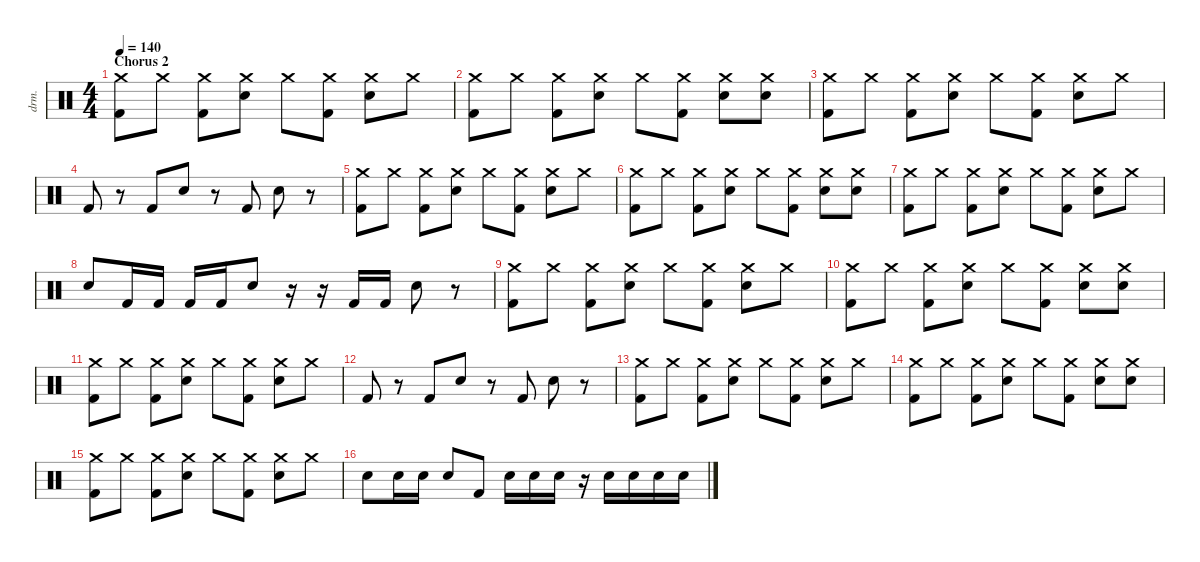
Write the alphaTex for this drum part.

\defaultSystemsLayout 4
\hideDynamics
\bracketExtendMode nobrackets
\otherSystemsTrackNameOrientation horizontal
\track ("Drumkit" "drm.") {instrument percussion}
\staff {score}
\articulation defaults
\ts (4 4)
\section ("" "Chorus 2")
\tempo 140
\clef neutral
\ks c
("Crash medium (hit)" "Kick (hit) 2").8{dy mf beam Down} "Crash medium (hit)".8{beam Down} ("Crash medium (hit)" "Kick (hit) 2").8{beam Down} ("Snare (hit) 2" "Crash medium (hit)").8{beam Down} "Crash medium (hit)".8{beam Down} ("Crash medium (hit)" "Kick (hit) 2").8{beam Down} ("Crash medium (hit)" "Snare (hit) 2").8{beam Down} "Crash medium (hit)".8{beam Down} |
("Crash medium (hit)" "Kick (hit) 2").8{beam Down} "Crash medium (hit)".8{beam Down} ("Crash medium (hit)" "Kick (hit) 2").8{beam Down} ("Snare (hit) 2" "Crash medium (hit)").8{beam Down} "Crash medium (hit)".8{beam Down} ("Crash medium (hit)" "Kick (hit) 2").8{beam Down} ("Crash medium (hit)" "Snare (hit) 2").8{beam Down} ("Crash medium (hit)" "Snare (hit) 2").8{beam Down} |
("Crash medium (hit)" "Kick (hit) 2").8{beam Down} "Crash medium (hit)".8{beam Down} ("Crash medium (hit)" "Kick (hit) 2").8{beam Down} ("Snare (hit) 2" "Crash medium (hit)").8{beam Down} "Crash medium (hit)".8{beam Down} ("Crash medium (hit)" "Kick (hit) 2").8{beam Down} ("Crash medium (hit)" "Snare (hit) 2").8{beam Down} "Crash medium (hit)".8{beam Down} |
"Kick (hit) 2".8{beam Up} r.8{beam Up} "Kick (hit) 2".8{beam Up} "Snare (hit) 2".8{beam Up} r.8{beam Up} "Kick (hit) 2".8{beam Up} "Snare (hit) 2".8{beam Down} r.8{beam Down} |
("Crash medium (hit)" "Kick (hit) 2").8{beam Down} "Crash medium (hit)".8{beam Down} ("Crash medium (hit)" "Kick (hit) 2").8{beam Down} ("Snare (hit) 2" "Crash medium (hit)").8{beam Down} "Crash medium (hit)".8{beam Down} ("Crash medium (hit)" "Kick (hit) 2").8{beam Down} ("Crash medium (hit)" "Snare (hit) 2").8{beam Down} "Crash medium (hit)".8{beam Down} |
("Crash medium (hit)" "Kick (hit) 2").8{beam Down} "Crash medium (hit)".8{beam Down} ("Crash medium (hit)" "Kick (hit) 2").8{beam Down} ("Snare (hit) 2" "Crash medium (hit)").8{beam Down} "Crash medium (hit)".8{beam Down} ("Crash medium (hit)" "Kick (hit) 2").8{beam Down} ("Crash medium (hit)" "Snare (hit) 2").8{beam Down} ("Crash medium (hit)" "Snare (hit) 2").8{beam Down} |
("Crash medium (hit)" "Kick (hit) 2").8{beam Down} "Crash medium (hit)".8{beam Down} ("Crash medium (hit)" "Kick (hit) 2").8{beam Down} ("Snare (hit) 2" "Crash medium (hit)").8{beam Down} "Crash medium (hit)".8{beam Down} ("Crash medium (hit)" "Kick (hit) 2").8{beam Down} ("Crash medium (hit)" "Snare (hit) 2").8{beam Down} "Crash medium (hit)".8{beam Down} |
"Snare (hit) 2".8{beam Up} "Kick (hit) 2".16{beam Up} "Kick (hit) 2".16{beam Up} "Kick (hit) 2".16{beam Up} "Kick (hit) 2".16{beam Up} "Snare (hit) 2".8{beam Up} r.16{beam Up} r.16{beam Up} "Kick (hit) 2".16{dy f beam Up} "Kick (hit) 2".16{beam Up} "Snare (hit) 2".8{dy mf beam Down} r.8{beam Down} |
("Crash medium (hit)" "Kick (hit) 2").8{beam Down} "Crash medium (hit)".8{beam Down} ("Crash medium (hit)" "Kick (hit) 2").8{beam Down} ("Snare (hit) 2" "Crash medium (hit)").8{beam Down} "Crash medium (hit)".8{beam Down} ("Crash medium (hit)" "Kick (hit) 2").8{beam Down} ("Crash medium (hit)" "Snare (hit) 2").8{beam Down} "Crash medium (hit)".8{beam Down} |
("Crash medium (hit)" "Kick (hit) 2").8{beam Down} "Crash medium (hit)".8{beam Down} ("Crash medium (hit)" "Kick (hit) 2").8{beam Down} ("Snare (hit) 2" "Crash medium (hit)").8{beam Down} "Crash medium (hit)".8{beam Down} ("Crash medium (hit)" "Kick (hit) 2").8{beam Down} ("Crash medium (hit)" "Snare (hit) 2").8{beam Down} ("Crash medium (hit)" "Snare (hit) 2").8{beam Down} |
("Crash medium (hit)" "Kick (hit) 2").8{beam Down} "Crash medium (hit)".8{beam Down} ("Crash medium (hit)" "Kick (hit) 2").8{beam Down} ("Snare (hit) 2" "Crash medium (hit)").8{beam Down} "Crash medium (hit)".8{beam Down} ("Crash medium (hit)" "Kick (hit) 2").8{beam Down} ("Crash medium (hit)" "Snare (hit) 2").8{beam Down} "Crash medium (hit)".8{beam Down} |
"Kick (hit) 2".8{beam Up} r.8{beam Up} "Kick (hit) 2".8{beam Up} "Snare (hit) 2".8{beam Up} r.8{beam Up} "Kick (hit) 2".8{beam Up} "Snare (hit) 2".8{beam Down} r.8{beam Down} |
("Crash medium (hit)" "Kick (hit) 2").8{beam Down} "Crash medium (hit)".8{beam Down} ("Crash medium (hit)" "Kick (hit) 2").8{beam Down} ("Snare (hit) 2" "Crash medium (hit)").8{beam Down} "Crash medium (hit)".8{beam Down} ("Crash medium (hit)" "Kick (hit) 2").8{beam Down} ("Crash medium (hit)" "Snare (hit) 2").8{beam Down} "Crash medium (hit)".8{beam Down} |
("Crash medium (hit)" "Kick (hit) 2").8{beam Down} "Crash medium (hit)".8{beam Down} ("Crash medium (hit)" "Kick (hit) 2").8{beam Down} ("Snare (hit) 2" "Crash medium (hit)").8{beam Down} "Crash medium (hit)".8{beam Down} ("Crash medium (hit)" "Kick (hit) 2").8{beam Down} ("Crash medium (hit)" "Snare (hit) 2").8{beam Down} ("Crash medium (hit)" "Snare (hit) 2").8{beam Down} |
("Crash medium (hit)" "Kick (hit) 2").8{beam Down} "Crash medium (hit)".8{beam Down} ("Crash medium (hit)" "Kick (hit) 2").8{beam Down} ("Snare (hit) 2" "Crash medium (hit)").8{beam Down} "Crash medium (hit)".8{beam Down} ("Crash medium (hit)" "Kick (hit) 2").8{beam Down} ("Crash medium (hit)" "Snare (hit) 2").8{beam Down} "Crash medium (hit)".8{beam Down} |
"Snare (hit) 2".8{beam Down} "Snare (hit) 2".16{beam Down} "Snare (hit) 2".16{beam Down} "Snare (hit) 2".8{beam Up} "Kick (hit) 2".8{beam Up} "Snare (hit) 2".16{beam Down} "Snare (hit) 2".16{beam Down} "Snare (hit) 2".16{beam Down} r.16{beam Down} "Snare (hit) 2".16{beam Down} "Snare (hit) 2".16{beam Down} "Snare (hit) 2".16{beam Down} "Snare (hit) 2".16{beam Down}
